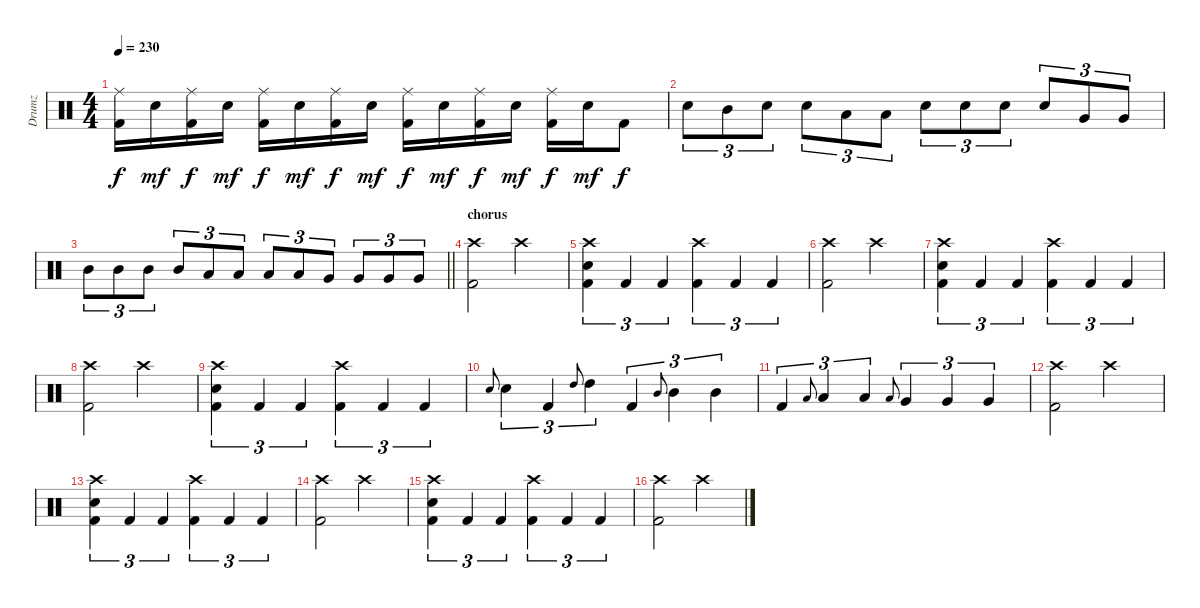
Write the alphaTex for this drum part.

\track ("Drumz" "Drumz") {instrument percussion}
\staff {score}
\articulation defaults
\ts (4 4)
\tempo 230
\clef neutral
\ks c
("Ride (middle)" "Kick (hit) 2").16{dy f} "Electric Snare (hit)".16{dy mf} ("Ride (middle)" "Kick (hit) 2").16{dy f} "Electric Snare (hit)".16{dy mf} ("Ride (middle)" "Kick (hit) 2").16{dy f} "Electric Snare (hit)".16{dy mf} ("Ride (middle)" "Kick (hit) 2").16{dy f} "Electric Snare (hit)".16{dy mf} ("Ride (middle)" "Kick (hit) 2").16{dy f} "Electric Snare (hit)".16{dy mf} ("Ride (middle)" "Kick (hit) 2").16{dy f} "Electric Snare (hit)".16{dy mf} ("Ride (middle)" "Kick (hit) 2").16{dy f} "Electric Snare (hit)".16{dy mf} "Kick (hit) 2".8{dy f} |
"Electric Snare (hit)".8{tu (3 2)} "Mid Tom (hit)".8{tu (3 2)} "Electric Snare (hit)".8{tu (3 2)} "Electric Snare (hit)".8{tu (3 2)} "Low Tom (hit)".8{tu (3 2)} "Low Tom (hit)".8{tu (3 2)} "Electric Snare (hit)".8{tu (3 2)} "Electric Snare (hit)".8{tu (3 2)} "Electric Snare (hit)".8{tu (3 2)} "Electric Snare (hit)".8{tu (3 2)} "Very Low Tom (hit)".8{tu (3 2)} "Very Low Tom (hit)".8{tu (3 2)} |
\barLineRight lightlight "Mid Tom (hit)".8{tu (3 2)} "Mid Tom (hit)".8{tu (3 2)} "Mid Tom (hit)".8{tu (3 2)} "Mid Tom (hit)".8{tu (3 2)} "Low Tom (hit)".8{tu (3 2)} "Low Tom (hit)".8{tu (3 2)} "Low Tom (hit)".8{tu (3 2)} "Low Tom (hit)".8{tu (3 2)} "Very Low Tom (hit)".8{tu (3 2)} "Very Low Tom (hit)".8{tu (3 2)} "Very Low Tom (hit)".8{tu (3 2)} "Very Low Tom (hit)".8{tu (3 2)}
|
\section ("" "chorus")
("Crash high (hit)" "Kick (hit) 2").2 "Crash high (hit)".2 |
("Crash high (hit)" "Electric Snare (hit)" "Kick (hit) 2").4{tu (3 2)} "Kick (hit) 2".4{tu (3 2)} "Kick (hit) 2".4{tu (3 2)} ("Crash high (hit)" "Kick (hit) 2").4{tu (3 2)} "Kick (hit) 2".4{tu (3 2)} "Kick (hit) 2".4{tu (3 2)} |
("Crash high (hit)" "Kick (hit) 2").2 "Crash high (hit)".2 |
("Crash high (hit)" "Electric Snare (hit)" "Kick (hit) 2").4{tu (3 2)} "Kick (hit) 2".4{tu (3 2)} "Kick (hit) 2".4{tu (3 2)} ("Crash high (hit)" "Kick (hit) 2").4{tu (3 2)} "Kick (hit) 2".4{tu (3 2)} "Kick (hit) 2".4{tu (3 2)} |
("Crash high (hit)" "Kick (hit) 2").2 "Crash high (hit)".2 |
("Crash high (hit)" "Electric Snare (hit)" "Kick (hit) 2").4{tu (3 2)} "Kick (hit) 2".4{tu (3 2)} "Kick (hit) 2".4{tu (3 2)} ("Crash high (hit)" "Kick (hit) 2").4{tu (3 2)} "Kick (hit) 2".4{tu (3 2)} "Kick (hit) 2".4{tu (3 2)} |
"Electric Snare (hit)".8{gr onbeat} "Electric Snare (hit)".4{tu (3 2)} "Kick (hit) 2".4{tu (3 2)} "High Tom (hit)".8{gr onbeat} "High Tom (hit)".4{tu (3 2)} "Kick (hit) 2".4{tu (3 2)} "Mid Tom (hit)".8{gr onbeat} "Mid Tom (hit)".4{tu (3 2)} "Mid Tom (hit)".4{tu (3 2)} |
"Kick (hit) 2".4{tu (3 2)} "Low Tom (hit)".8{gr onbeat} "Low Tom (hit)".4{tu (3 2)} "Low Tom (hit)".4{tu (3 2)} "Low Tom (hit)".8{gr onbeat} "Very Low Tom (hit)".4{tu (3 2)} "Very Low Tom (hit)".4{tu (3 2)} "Very Low Tom (hit)".4{tu (3 2)} |
("Crash high (hit)" "Kick (hit) 2").2 "Crash high (hit)".2 |
("Crash high (hit)" "Electric Snare (hit)" "Kick (hit) 2").4{tu (3 2)} "Kick (hit) 2".4{tu (3 2)} "Kick (hit) 2".4{tu (3 2)} ("Crash high (hit)" "Kick (hit) 2").4{tu (3 2)} "Kick (hit) 2".4{tu (3 2)} "Kick (hit) 2".4{tu (3 2)} |
("Crash high (hit)" "Kick (hit) 2").2 "Crash high (hit)".2 |
("Crash high (hit)" "Electric Snare (hit)" "Kick (hit) 2").4{tu (3 2)} "Kick (hit) 2".4{tu (3 2)} "Kick (hit) 2".4{tu (3 2)} ("Crash high (hit)" "Kick (hit) 2").4{tu (3 2)} "Kick (hit) 2".4{tu (3 2)} "Kick (hit) 2".4{tu (3 2)} |
("Crash high (hit)" "Kick (hit) 2").2 "Crash high (hit)".2
